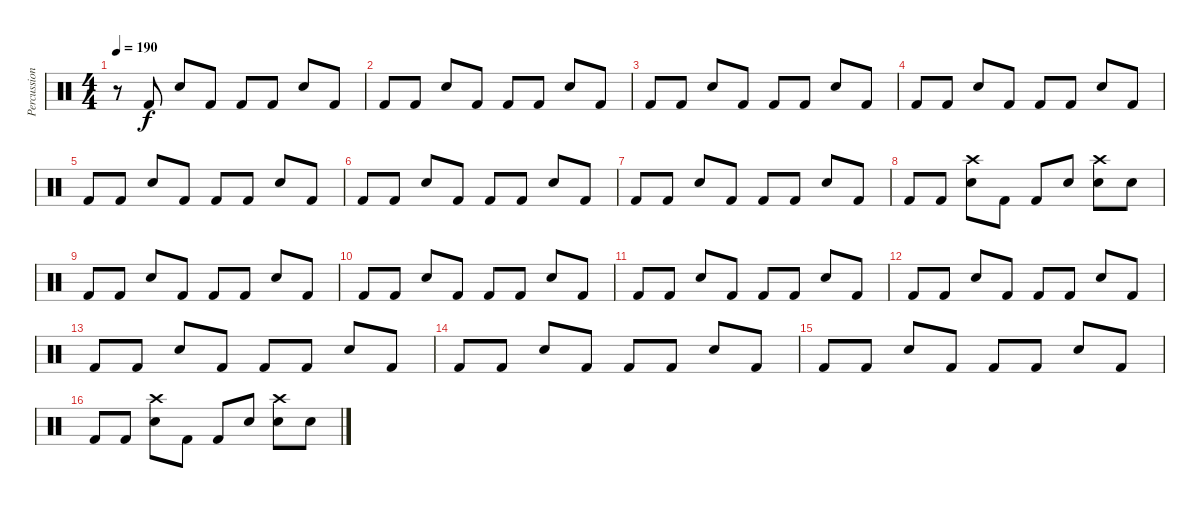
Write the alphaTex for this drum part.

\track ("Percussions" "Percussion") {instrument percussion}
\staff {score}
\articulation defaults
\ts (4 4)
\tempo 190
\clef neutral
\ks c
r.8{dy f} "Kick (hit) 2".8 "Electric Snare (hit)".8 "Kick (hit) 2".8 "Kick (hit) 2".8 "Kick (hit) 2".8 "Electric Snare (hit)".8 "Kick (hit) 2".8 |
"Kick (hit) 2".8 "Kick (hit) 2".8 "Electric Snare (hit)".8 "Kick (hit) 2".8 "Kick (hit) 2".8 "Kick (hit) 2".8 "Electric Snare (hit)".8 "Kick (hit) 2".8 |
"Kick (hit) 2".8 "Kick (hit) 2".8 "Electric Snare (hit)".8 "Kick (hit) 2".8 "Kick (hit) 2".8 "Kick (hit) 2".8 "Electric Snare (hit)".8 "Kick (hit) 2".8 |
"Kick (hit) 2".8 "Kick (hit) 2".8 "Electric Snare (hit)".8 "Kick (hit) 2".8 "Kick (hit) 2".8 "Kick (hit) 2".8 "Electric Snare (hit)".8 "Kick (hit) 2".8 |
"Kick (hit) 2".8 "Kick (hit) 2".8 "Electric Snare (hit)".8 "Kick (hit) 2".8 "Kick (hit) 2".8 "Kick (hit) 2".8 "Electric Snare (hit)".8 "Kick (hit) 2".8 |
"Kick (hit) 2".8 "Kick (hit) 2".8 "Electric Snare (hit)".8 "Kick (hit) 2".8 "Kick (hit) 2".8 "Kick (hit) 2".8 "Electric Snare (hit)".8 "Kick (hit) 2".8 |
"Kick (hit) 2".8 "Kick (hit) 2".8 "Electric Snare (hit)".8 "Kick (hit) 2".8 "Kick (hit) 2".8 "Kick (hit) 2".8 "Electric Snare (hit)".8 "Kick (hit) 2".8 |
"Kick (hit) 2".8 "Kick (hit) 2".8 ("Crash high (hit)" "Electric Snare (hit)").8 "Kick (hit) 2".8 "Kick (hit) 2".8 "Electric Snare (hit)".8 ("Crash high (hit)" "Electric Snare (hit)").8 "Electric Snare (hit)".8 |
"Kick (hit) 2".8 "Kick (hit) 2".8 "Electric Snare (hit)".8 "Kick (hit) 2".8 "Kick (hit) 2".8 "Kick (hit) 2".8 "Electric Snare (hit)".8 "Kick (hit) 2".8 |
"Kick (hit) 2".8 "Kick (hit) 2".8 "Electric Snare (hit)".8 "Kick (hit) 2".8 "Kick (hit) 2".8 "Kick (hit) 2".8 "Electric Snare (hit)".8 "Kick (hit) 2".8 |
"Kick (hit) 2".8 "Kick (hit) 2".8 "Electric Snare (hit)".8 "Kick (hit) 2".8 "Kick (hit) 2".8 "Kick (hit) 2".8 "Electric Snare (hit)".8 "Kick (hit) 2".8 |
"Kick (hit) 2".8 "Kick (hit) 2".8 "Electric Snare (hit)".8 "Kick (hit) 2".8 "Kick (hit) 2".8 "Kick (hit) 2".8 "Electric Snare (hit)".8 "Kick (hit) 2".8 |
"Kick (hit) 2".8 "Kick (hit) 2".8 "Electric Snare (hit)".8 "Kick (hit) 2".8 "Kick (hit) 2".8 "Kick (hit) 2".8 "Electric Snare (hit)".8 "Kick (hit) 2".8 |
"Kick (hit) 2".8 "Kick (hit) 2".8 "Electric Snare (hit)".8 "Kick (hit) 2".8 "Kick (hit) 2".8 "Kick (hit) 2".8 "Electric Snare (hit)".8 "Kick (hit) 2".8 |
"Kick (hit) 2".8 "Kick (hit) 2".8 "Electric Snare (hit)".8 "Kick (hit) 2".8 "Kick (hit) 2".8 "Kick (hit) 2".8 "Electric Snare (hit)".8 "Kick (hit) 2".8 |
"Kick (hit) 2".8 "Kick (hit) 2".8 ("Crash high (hit)" "Electric Snare (hit)").8 "Kick (hit) 2".8 "Kick (hit) 2".8 "Electric Snare (hit)".8 ("Crash high (hit)" "Electric Snare (hit)").8 "Electric Snare (hit)".8
